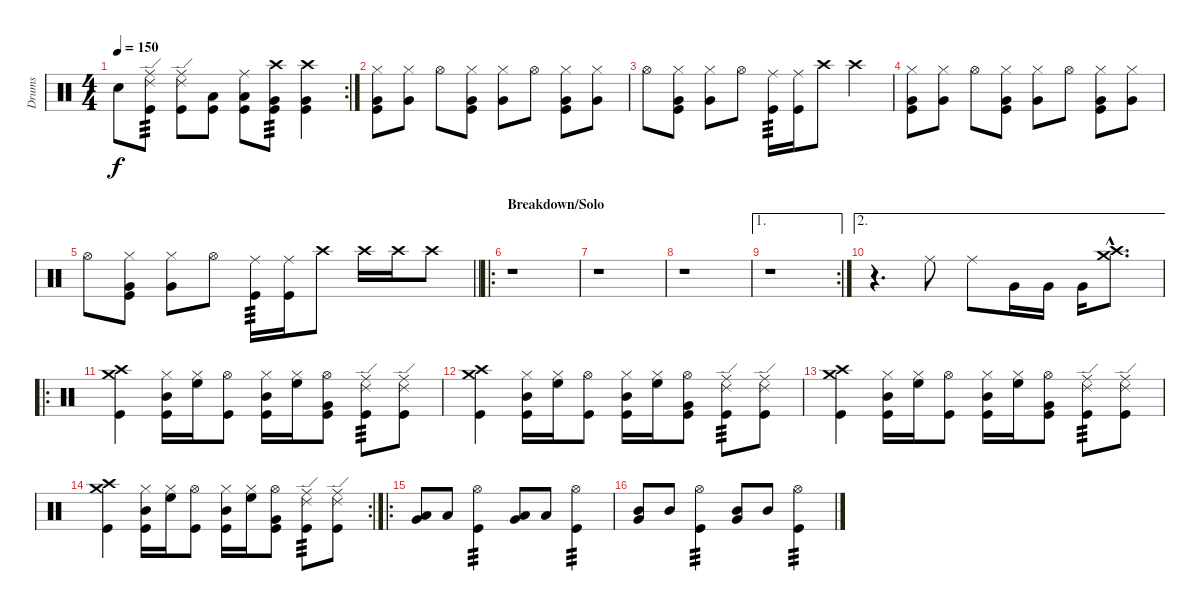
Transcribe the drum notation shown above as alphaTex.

\track ("Drums" "Drums") {instrument percussion}
\staff {score}
\articulation defaults
\rc 2
\ts (4 4)
\tempo 150
\clef neutral
\ks c "Snare (hit)"{t}.8{dy f}
("Ride (middle)" "Ride (edge) 2" "Kick (hit)").8{tp 3} ("Ride (middle)" "Ride (edge) 2" "Kick (hit)").8 ("Low Floor Tom (hit)" "Kick (hit)").8 ("Low Floor Tom (hit)" "Ride (middle)" "Kick (hit)").8 ("Very Low Tom (hit)" "Crash high (hit)" "Kick (hit)").8{tp 3} ("Very Low Tom (hit)" "Crash high (hit)" "Kick (hit)").4 |
("Hi-Hat (closed)" "Very Low Tom (hit)" "Kick (hit)").8 ("Hi-Hat (closed)" "Very Low Tom (hit)").8 "Hi-Hat (open)".8 ("Hi-Hat (closed)" "Very Low Tom (hit)" "Kick (hit)").8 ("Hi-Hat (closed)" "Very Low Tom (hit)").8 "Hi-Hat (open)".8 ("Hi-Hat (closed)" "Very Low Tom (hit)" "Kick (hit)").8 ("Hi-Hat (closed)" "Very Low Tom (hit)").8 |
"Hi-Hat (open)".8 ("Hi-Hat (closed)" "Very Low Tom (hit)" "Kick (hit)").8 ("Hi-Hat (closed)" "Very Low Tom (hit)").8 "Hi-Hat (open)".8 ("Ride (middle)" "Kick (hit)").16{tp 3} ("Ride (middle)" "Kick (hit)").16 "Crash high (hit)".8 "Crash high (hit)".4 |
("Hi-Hat (closed)" "Very Low Tom (hit)" "Kick (hit)").8 ("Hi-Hat (closed)" "Very Low Tom (hit)").8 "Hi-Hat (open)".8 ("Hi-Hat (closed)" "Very Low Tom (hit)" "Kick (hit)").8 ("Hi-Hat (closed)" "Very Low Tom (hit)").8 "Hi-Hat (open)".8 ("Hi-Hat (closed)" "Very Low Tom (hit)" "Kick (hit)").8 ("Hi-Hat (closed)" "Very Low Tom (hit)").8 |
\barLineRight lightlight "Hi-Hat (open)".8
("Hi-Hat (closed)" "Very Low Tom (hit)" "Kick (hit)").8 ("Hi-Hat (closed)" "Very Low Tom (hit)").8 "Hi-Hat (open)".8 ("Ride (middle)" "Kick (hit)").16{tp 3} ("Ride (middle)" "Kick (hit)").16 "Crash high (hit)".8 "Crash high (hit)".16 "Crash high (hit)".16 "Crash high (hit)".8 |
\ro
\section ("" "Breakdown/Solo")
r.1 |
r.1 |
r.1 |
\ae 1
\rc 2
r.1 |
\ae 2
r.4{d} "Ride (middle)".8 "Ride (middle)".8 "Very Low Tom (hit)".16 "Very Low Tom (hit)".16 "Very Low Tom (hit)".16 ("Crash high (hit)"{hac} "Crash medium (hit)"{hac}).8{d} |
\ro
("Crash high (hit)" "Crash medium (hit)" "Kick (hit)").4 ("Hi-Hat (closed)" "Mid Tom (hit)" "Kick (hit)").16 ("Hi-Hat (closed)" "High Floor Tom (hit)").16 ("Hi-Hat (open)" "Kick (hit)").8 ("Hi-Hat (closed)" "Mid Tom (hit)" "Kick (hit)").16 ("Hi-Hat (closed)" "High Floor Tom (hit)").16 ("Hi-Hat (open)" "Very Low Tom (hit)" "Kick (hit)").8 ("Ride (middle)" "Ride (edge) 2" "Kick (hit)").8{tp 3} ("Ride (middle)" "Ride (edge) 2" "Kick (hit)").8 |
("Crash high (hit)" "Crash medium (hit)" "Kick (hit)").4 ("Hi-Hat (closed)" "Mid Tom (hit)" "Kick (hit)").16 ("Hi-Hat (closed)" "High Floor Tom (hit)").16 ("Hi-Hat (open)" "Kick (hit)").8 ("Hi-Hat (closed)" "Mid Tom (hit)" "Kick (hit)").16 ("Hi-Hat (closed)" "High Floor Tom (hit)").16 ("Hi-Hat (open)" "Very Low Tom (hit)" "Kick (hit)").8 ("Ride (middle)" "Ride (edge) 2" "Kick (hit)").8{tp 3} ("Ride (middle)" "Ride (edge) 2" "Kick (hit)").8 |
("Crash high (hit)" "Crash medium (hit)" "Kick (hit)").4 ("Hi-Hat (closed)" "Mid Tom (hit)" "Kick (hit)").16 ("Hi-Hat (closed)" "High Floor Tom (hit)").16 ("Hi-Hat (open)" "Kick (hit)").8 ("Hi-Hat (closed)" "Mid Tom (hit)" "Kick (hit)").16 ("Hi-Hat (closed)" "High Floor Tom (hit)").16 ("Hi-Hat (open)" "Very Low Tom (hit)" "Kick (hit)").8 ("Ride (middle)" "Ride (edge) 2" "Kick (hit)").8{tp 3} ("Ride (middle)" "Ride (edge) 2" "Kick (hit)").8 |
\rc 2
("Crash high (hit)" "Crash medium (hit)" "Kick (hit)").4 ("Hi-Hat (closed)" "Mid Tom (hit)" "Kick (hit)").16 ("Hi-Hat (closed)" "High Floor Tom (hit)").16 ("Hi-Hat (open)" "Kick (hit)").8 ("Hi-Hat (closed)" "Mid Tom (hit)" "Kick (hit)").16 ("Hi-Hat (closed)" "High Floor Tom (hit)").16 ("Hi-Hat (open)" "Very Low Tom (hit)" "Kick (hit)").8 ("Ride (middle)" "Ride (edge) 2" "Kick (hit)").8{tp 3} ("Ride (middle)" "Ride (edge) 2" "Kick (hit)").8 |
\ro
("Low Tom (hit)" "Very Low Tom (hit)").8 "Low Tom (hit)".8 ("Hi-Hat (open)" "Kick (hit)").4{tp 3} ("Low Tom (hit)" "Very Low Tom (hit)").8 "Low Tom (hit)".8 ("Hi-Hat (open)" "Kick (hit)").4{tp 3} |
("Mid Tom (hit)" "Very Low Tom (hit)").8 "Mid Tom (hit)".8 ("Hi-Hat (open)" "Kick (hit)").4{tp 3} ("Mid Tom (hit)" "Very Low Tom (hit)").8 "Mid Tom (hit)".8 ("Hi-Hat (open)" "Kick (hit)").4{tp 3}
